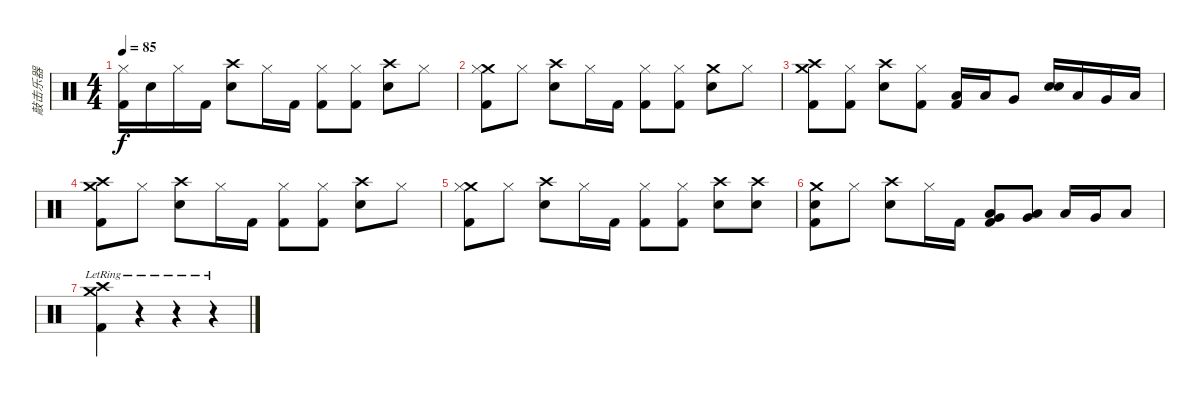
\track ("敲击乐器" "敲击乐器") {instrument percussion}
\staff {score}
\articulation defaults
\ts (4 4)
\tempo 85
\clef neutral
\ks c
("Hi-Hat (closed)" "Kick (hit) 2").16{dy f} "Snare (hit) 2".16 "Hi-Hat (closed)".16 "Kick (hit) 2".16 ("Snare (hit) 2" "Crash high (hit)").8 "Hi-Hat (closed)".16 "Kick (hit) 2".16 ("Hi-Hat (closed)" "Kick (hit) 2").8 ("Hi-Hat (closed)" "Kick (hit) 2").8 ("Snare (hit) 2" "Crash high (hit)").8 "Hi-Hat (closed)".8 |
("Crash medium (hit)" "Hi-Hat (closed)" "Kick (hit) 2").8 "Hi-Hat (closed)".8 ("Snare (hit) 2" "Crash high (hit)").8 "Hi-Hat (closed)".16 "Kick (hit) 2".16 ("Hi-Hat (closed)" "Kick (hit) 2").8 ("Hi-Hat (closed)" "Kick (hit) 2").8 ("Snare (hit) 2" "Crash medium (hit)").8 "Hi-Hat (closed)".8 |
("Crash medium (hit)" "Crash high (hit)" "Kick (hit) 2").8 ("Hi-Hat (closed)" "Kick (hit) 2").8 ("Snare (hit) 2" "Crash high (hit)").8 ("Hi-Hat (closed)" "Kick (hit) 2").8 ("Low Tom (hit)" "Kick (hit) 2").16 "Low Tom (hit)".16 "Very Low Tom (hit)".8 ("Electric Snare (hit)" "Snare (hit) 2").16 "Low Tom (hit)".16 "Very Low Tom (hit)".16 "Low Floor Tom (hit)".16 |
("Crash high (hit)" "Crash medium (hit)" "Kick (hit) 2").8 "Hi-Hat (closed)".8 ("Snare (hit) 2" "Crash high (hit)").8 "Hi-Hat (closed)".16 "Kick (hit) 2".16 ("Hi-Hat (closed)" "Kick (hit) 2").8 ("Hi-Hat (closed)" "Kick (hit) 2").8 ("Snare (hit) 2" "Crash high (hit)").8 "Hi-Hat (closed)".8 |
("Crash medium (hit)" "Hi-Hat (closed)" "Kick (hit) 2").8 "Hi-Hat (closed)".8 ("Snare (hit) 2" "Crash high (hit)").8 "Hi-Hat (closed)".16 "Kick (hit) 2".16 ("Hi-Hat (closed)" "Kick (hit) 2").8 ("Hi-Hat (closed)" "Kick (hit) 2").8 ("Snare (hit) 2" "Crash high (hit)").8 ("Snare (hit) 2" "Crash high (hit)").8 |
("Snare (hit) 2" "Crash medium (hit)" "Kick (hit) 2").8 "Hi-Hat (closed)".8 ("Snare (hit) 2" "Crash high (hit)").8 "Hi-Hat (closed)".16 "Kick (hit) 2".16 ("Low Tom (hit)" "Very Low Tom (hit)" "Kick (hit) 2").8 ("Low Tom (hit)" "Very Low Tom (hit)").8 "Low Tom (hit)".16 "Very Low Tom (hit)".16 "Low Floor Tom (hit)".8 |
("Crash medium (hit)"{lr} "Crash high (hit)"{lr} "Kick (hit) 2").4 r.4 r.4 r.4
